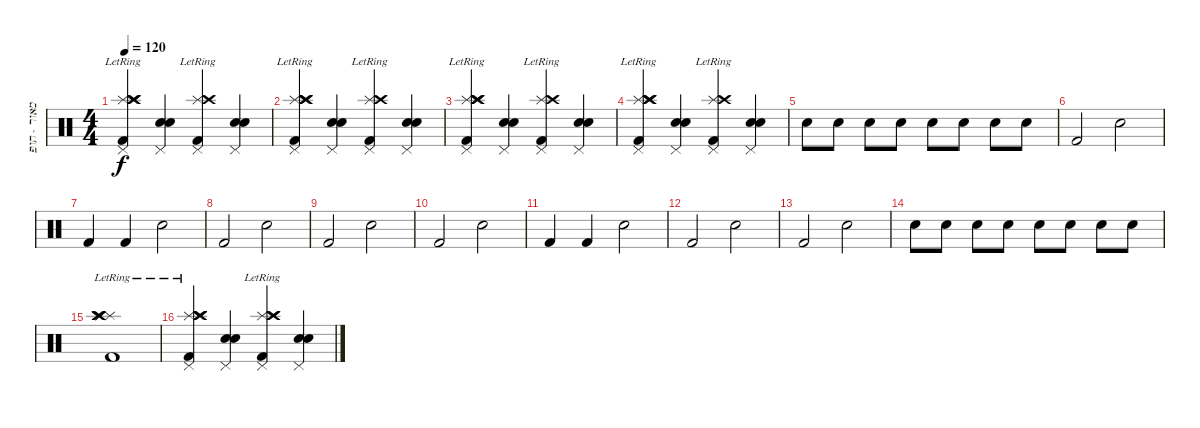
\track ("מאור - תופים" "מאור - תופ") {instrument percussion}
\staff {score}
\articulation defaults
\ts (4 4)
\tempo 120
\clef neutral
\ks c
("Kick (hit) 2" "Splash (hit)" "Splash (hit)"{lr} "Crash high (hit)"{lr} "Crash high (hit)" "Pedal Hi-Hat (hit)").4{dy f} ("Electric Snare (hit)" "Electric Snare (hit)" "Pedal Hi-Hat (hit)").4 ("Kick (hit) 2" "Splash (hit)"{lr} "Crash high (hit)"{lr} "Pedal Hi-Hat (hit)").4 ("Electric Snare (hit)" "Electric Snare (hit)" "Pedal Hi-Hat (hit)").4 |
("Kick (hit) 2" "Splash (hit)" "Splash (hit)"{lr} "Crash high (hit)"{lr} "Crash high (hit)" "Pedal Hi-Hat (hit)").4 ("Electric Snare (hit)" "Electric Snare (hit)" "Pedal Hi-Hat (hit)").4 ("Kick (hit) 2" "Splash (hit)"{lr} "Crash high (hit)"{lr} "Pedal Hi-Hat (hit)").4 ("Electric Snare (hit)" "Electric Snare (hit)" "Pedal Hi-Hat (hit)").4 |
("Kick (hit) 2" "Splash (hit)" "Splash (hit)"{lr} "Crash high (hit)"{lr} "Crash high (hit)" "Pedal Hi-Hat (hit)").4 ("Electric Snare (hit)" "Electric Snare (hit)" "Pedal Hi-Hat (hit)").4 ("Kick (hit) 2" "Splash (hit)"{lr} "Crash high (hit)"{lr} "Pedal Hi-Hat (hit)").4 ("Electric Snare (hit)" "Electric Snare (hit)" "Pedal Hi-Hat (hit)").4 |
("Kick (hit) 2" "Splash (hit)" "Splash (hit)"{lr} "Crash high (hit)"{lr} "Crash high (hit)" "Pedal Hi-Hat (hit)").4 ("Electric Snare (hit)" "Electric Snare (hit)" "Pedal Hi-Hat (hit)").4 ("Kick (hit) 2" "Splash (hit)"{lr} "Crash high (hit)"{lr} "Pedal Hi-Hat (hit)").4 ("Electric Snare (hit)" "Electric Snare (hit)" "Pedal Hi-Hat (hit)").4 |
"Electric Snare (hit)".8 "Electric Snare (hit)".8 "Electric Snare (hit)".8 "Electric Snare (hit)".8 "Electric Snare (hit)".8 "Electric Snare (hit)".8 "Electric Snare (hit)".8 "Electric Snare (hit)".8 |
"Kick (hit) 2".2 "Electric Snare (hit)".2 |
"Kick (hit) 2".4 "Kick (hit) 2".4 "Electric Snare (hit)".2 |
"Kick (hit) 2".2 "Electric Snare (hit)".2 |
"Kick (hit) 2".2 "Electric Snare (hit)".2 |
"Kick (hit) 2".2 "Electric Snare (hit)".2 |
"Kick (hit) 2".4 "Kick (hit) 2".4 "Electric Snare (hit)".2 |
"Kick (hit) 2".2 "Electric Snare (hit)".2 |
"Kick (hit) 2".2 "Electric Snare (hit)".2 |
"Electric Snare (hit)".8 "Electric Snare (hit)".8 "Electric Snare (hit)".8 "Electric Snare (hit)".8 "Electric Snare (hit)".8 "Electric Snare (hit)".8 "Electric Snare (hit)".8 "Electric Snare (hit)".8 |
("Kick (hit) 2"{lr} "Splash (hit)"{lr} "Crash high (hit)"{lr} "Splash (hit)"{lr} "Splash (hit)"{lr} "Crash high (hit)"{lr}).1 |
("Kick (hit) 2" "Splash (hit)" "Splash (hit)"{lr} "Crash high (hit)"{lr} "Crash high (hit)" "Pedal Hi-Hat (hit)").4 ("Electric Snare (hit)" "Electric Snare (hit)" "Pedal Hi-Hat (hit)").4 ("Kick (hit) 2" "Splash (hit)"{lr} "Crash high (hit)"{lr} "Crash high (hit)"{lr} "Pedal Hi-Hat (hit)").4 ("Electric Snare (hit)" "Electric Snare (hit)" "Pedal Hi-Hat (hit)").4
